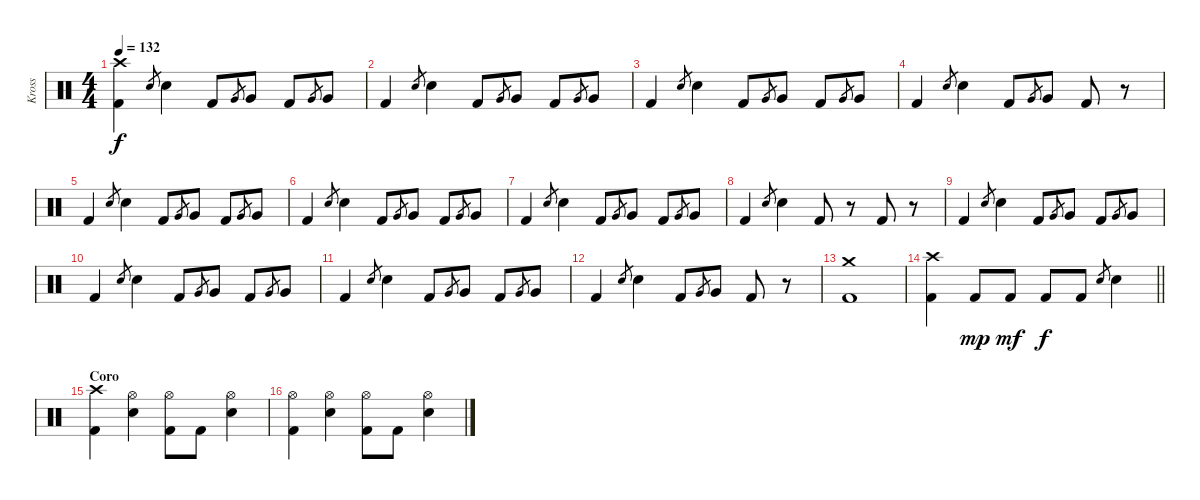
\track ("Kross" "Kross") {instrument percussion}
\staff {score}
\articulation defaults
\ts (4 4)
\tempo 132
\clef neutral
\ks c
("Crash high (hit)" "Kick (hit) 2").4{dy f} "Electric Snare (hit)".8{gr} "Electric Snare (hit)".4 "Kick (hit) 2".8 "Very Low Tom (hit)".8{gr} "Very Low Tom (hit)".8 "Kick (hit) 2".8 "Very Low Tom (hit)".8{gr} "Very Low Tom (hit)".8 |
"Kick (hit) 2".4 "Electric Snare (hit)".8{gr} "Electric Snare (hit)".4 "Kick (hit) 2".8 "Very Low Tom (hit)".8{gr} "Very Low Tom (hit)".8 "Kick (hit) 2".8 "Very Low Tom (hit)".8{gr} "Very Low Tom (hit)".8 |
"Kick (hit) 2".4 "Electric Snare (hit)".8{gr} "Electric Snare (hit)".4 "Kick (hit) 2".8 "Very Low Tom (hit)".8{gr} "Very Low Tom (hit)".8 "Kick (hit) 2".8 "Very Low Tom (hit)".8{gr} "Very Low Tom (hit)".8 |
"Kick (hit) 2".4 "Electric Snare (hit)".8{gr} "Electric Snare (hit)".4 "Kick (hit) 2".8 "Very Low Tom (hit)".8{gr} "Very Low Tom (hit)".8 "Kick (hit) 2".8 r.8 |
"Kick (hit) 2".4 "Electric Snare (hit)".8{gr} "Electric Snare (hit)".4 "Kick (hit) 2".8 "Very Low Tom (hit)".8{gr} "Very Low Tom (hit)".8 "Kick (hit) 2".8 "Very Low Tom (hit)".8{gr} "Very Low Tom (hit)".8 |
"Kick (hit) 2".4 "Electric Snare (hit)".8{gr} "Electric Snare (hit)".4 "Kick (hit) 2".8 "Very Low Tom (hit)".8{gr} "Very Low Tom (hit)".8 "Kick (hit) 2".8 "Very Low Tom (hit)".8{gr} "Very Low Tom (hit)".8 |
"Kick (hit) 2".4 "Electric Snare (hit)".8{gr} "Electric Snare (hit)".4 "Kick (hit) 2".8 "Very Low Tom (hit)".8{gr} "Very Low Tom (hit)".8 "Kick (hit) 2".8 "Very Low Tom (hit)".8{gr} "Very Low Tom (hit)".8 |
"Kick (hit) 2".4 "Electric Snare (hit)".8{gr} "Electric Snare (hit)".4 "Kick (hit) 2".8 r.8 "Kick (hit) 2".8 r.8 |
"Kick (hit) 2".4 "Electric Snare (hit)".8{gr} "Electric Snare (hit)".4 "Kick (hit) 2".8 "Very Low Tom (hit)".8{gr} "Very Low Tom (hit)".8 "Kick (hit) 2".8 "Very Low Tom (hit)".8{gr} "Very Low Tom (hit)".8 |
"Kick (hit) 2".4 "Electric Snare (hit)".8{gr} "Electric Snare (hit)".4 "Kick (hit) 2".8 "Very Low Tom (hit)".8{gr} "Very Low Tom (hit)".8 "Kick (hit) 2".8 "Very Low Tom (hit)".8{gr} "Very Low Tom (hit)".8 |
"Kick (hit) 2".4 "Electric Snare (hit)".8{gr} "Electric Snare (hit)".4 "Kick (hit) 2".8 "Very Low Tom (hit)".8{gr} "Very Low Tom (hit)".8 "Kick (hit) 2".8 "Very Low Tom (hit)".8{gr} "Very Low Tom (hit)".8 |
"Kick (hit) 2".4 "Electric Snare (hit)".8{gr} "Electric Snare (hit)".4 "Kick (hit) 2".8 "Very Low Tom (hit)".8{gr} "Very Low Tom (hit)".8 "Kick (hit) 2".8 r.8 |
("Crash medium (hit)" "Kick (hit) 2").1 |
\barLineRight lightlight
("Crash high (hit)" "Kick (hit) 2").4 "Kick (hit) 2".8{dy mp} "Kick (hit) 2".8{dy mf} "Kick (hit) 2".8{dy f} "Kick (hit) 2".8 "Electric Snare (hit)".8{gr} "Electric Snare (hit)".4 |
\section ("" "Coro")
("Crash high (hit)" "Kick (hit) 2").4 ("Hi-Hat (open)" "Electric Snare (hit)").4 ("Hi-Hat (open)" "Kick (hit) 2").8 "Kick (hit) 2".8 ("Hi-Hat (open)" "Electric Snare (hit)").4 |
("Hi-Hat (open)" "Kick (hit) 2").4 ("Hi-Hat (open)" "Electric Snare (hit)").4 ("Hi-Hat (open)" "Kick (hit) 2").8 "Kick (hit) 2".8 ("Hi-Hat (open)" "Electric Snare (hit)").4
